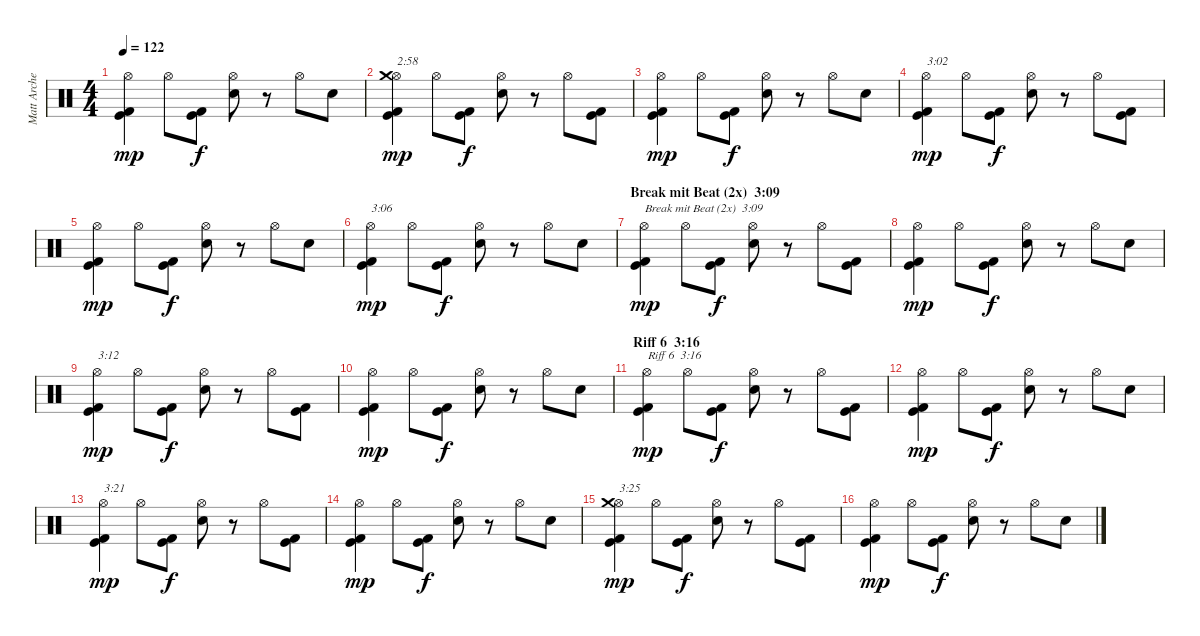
\track ("Matt Archer" "Matt Arche") {instrument percussion}
\staff {score}
\articulation defaults
\ts (4 4)
\tempo 122
\clef neutral
\ks c
("Kick (hit)" "Kick (hit) 2" "Hi-Hat (open)").4{dy mp} "Hi-Hat (open)".8 ("Kick (hit)" "Kick (hit) 2").8{dy f} ("Electric Snare (hit)" "Hi-Hat (open)").8 r.8 "Hi-Hat (open)".8 "Electric Snare (hit)".8 |
("Kick (hit)" "Kick (hit) 2" "Hi-Hat (open)" "Crash medium (hit)").4{txt "2:58" dy mp} "Hi-Hat (open)".8 ("Kick (hit)" "Kick (hit) 2").8{dy f} ("Electric Snare (hit)" "Hi-Hat (open)").8 r.8 "Hi-Hat (open)".8 ("Kick (hit)" "Kick (hit) 2").8 |
("Kick (hit)" "Kick (hit) 2" "Hi-Hat (open)").4{dy mp} "Hi-Hat (open)".8 ("Kick (hit)" "Kick (hit) 2").8{dy f} ("Electric Snare (hit)" "Hi-Hat (open)").8 r.8 "Hi-Hat (open)".8 "Electric Snare (hit)".8 |
("Kick (hit)" "Kick (hit) 2" "Hi-Hat (open)").4{txt "3:02" dy mp} "Hi-Hat (open)".8 ("Kick (hit)" "Kick (hit) 2").8{dy f} ("Electric Snare (hit)" "Hi-Hat (open)").8 r.8 "Hi-Hat (open)".8 ("Kick (hit)" "Kick (hit) 2").8 |
("Kick (hit)" "Kick (hit) 2" "Hi-Hat (open)").4{dy mp} "Hi-Hat (open)".8 ("Kick (hit)" "Kick (hit) 2").8{dy f} ("Electric Snare (hit)" "Hi-Hat (open)").8 r.8 "Hi-Hat (open)".8 "Electric Snare (hit)".8 |
("Kick (hit)" "Kick (hit) 2" "Hi-Hat (open)").4{txt "3:06" dy mp} "Hi-Hat (open)".8 ("Kick (hit)" "Kick (hit) 2").8{dy f} ("Electric Snare (hit)" "Hi-Hat (open)").8 r.8 "Hi-Hat (open)".8 "Electric Snare (hit)".8 |
\section ("" "Break mit Beat (2x)  3:09")
("Kick (hit)" "Kick (hit) 2" "Hi-Hat (open)").4{txt "Break mit Beat (2x)  3:09" dy mp} "Hi-Hat (open)".8 ("Kick (hit)" "Kick (hit) 2").8{dy f} ("Electric Snare (hit)" "Hi-Hat (open)").8 r.8 "Hi-Hat (open)".8 ("Kick (hit)" "Kick (hit) 2").8 |
("Kick (hit)" "Kick (hit) 2" "Hi-Hat (open)").4{dy mp} "Hi-Hat (open)".8 ("Kick (hit)" "Kick (hit) 2").8{dy f} ("Electric Snare (hit)" "Hi-Hat (open)").8 r.8 "Hi-Hat (open)".8 "Electric Snare (hit)".8 |
("Kick (hit)" "Kick (hit) 2" "Hi-Hat (open)").4{txt "3:12" dy mp} "Hi-Hat (open)".8 ("Kick (hit)" "Kick (hit) 2").8{dy f} ("Electric Snare (hit)" "Hi-Hat (open)").8 r.8 "Hi-Hat (open)".8 ("Kick (hit)" "Kick (hit) 2").8 |
("Kick (hit)" "Kick (hit) 2" "Hi-Hat (open)").4{dy mp} "Hi-Hat (open)".8 ("Kick (hit)" "Kick (hit) 2").8{dy f} ("Electric Snare (hit)" "Hi-Hat (open)").8 r.8 "Hi-Hat (open)".8 "Electric Snare (hit)".8 |
\section ("" "Riff 6  3:16")
("Kick (hit)" "Kick (hit) 2" "Hi-Hat (open)").4{txt "Riff 6  3:16" dy mp} "Hi-Hat (open)".8 ("Kick (hit)" "Kick (hit) 2").8{dy f} ("Electric Snare (hit)" "Hi-Hat (open)").8 r.8 "Hi-Hat (open)".8 ("Kick (hit)" "Kick (hit) 2").8 |
("Kick (hit)" "Kick (hit) 2" "Hi-Hat (open)").4{dy mp} "Hi-Hat (open)".8 ("Kick (hit)" "Kick (hit) 2").8{dy f} ("Electric Snare (hit)" "Hi-Hat (open)").8 r.8 "Hi-Hat (open)".8 "Electric Snare (hit)".8 |
("Kick (hit)" "Kick (hit) 2" "Hi-Hat (open)").4{txt "3:21" dy mp} "Hi-Hat (open)".8 ("Kick (hit)" "Kick (hit) 2").8{dy f} ("Electric Snare (hit)" "Hi-Hat (open)").8 r.8 "Hi-Hat (open)".8 ("Kick (hit)" "Kick (hit) 2").8 |
("Kick (hit)" "Kick (hit) 2" "Hi-Hat (open)").4{dy mp} "Hi-Hat (open)".8 ("Kick (hit)" "Kick (hit) 2").8{dy f} ("Electric Snare (hit)" "Hi-Hat (open)").8 r.8 "Hi-Hat (open)".8 "Electric Snare (hit)".8 |
("Kick (hit)" "Kick (hit) 2" "Hi-Hat (open)" "Crash medium (hit)").4{txt "3:25" dy mp} "Hi-Hat (open)".8 ("Kick (hit)" "Kick (hit) 2").8{dy f} ("Electric Snare (hit)" "Hi-Hat (open)").8 r.8 "Hi-Hat (open)".8 ("Kick (hit)" "Kick (hit) 2").8 |
("Kick (hit)" "Kick (hit) 2" "Hi-Hat (open)").4{dy mp} "Hi-Hat (open)".8 ("Kick (hit)" "Kick (hit) 2").8{dy f} ("Electric Snare (hit)" "Hi-Hat (open)").8 r.8 "Hi-Hat (open)".8 "Electric Snare (hit)".8
